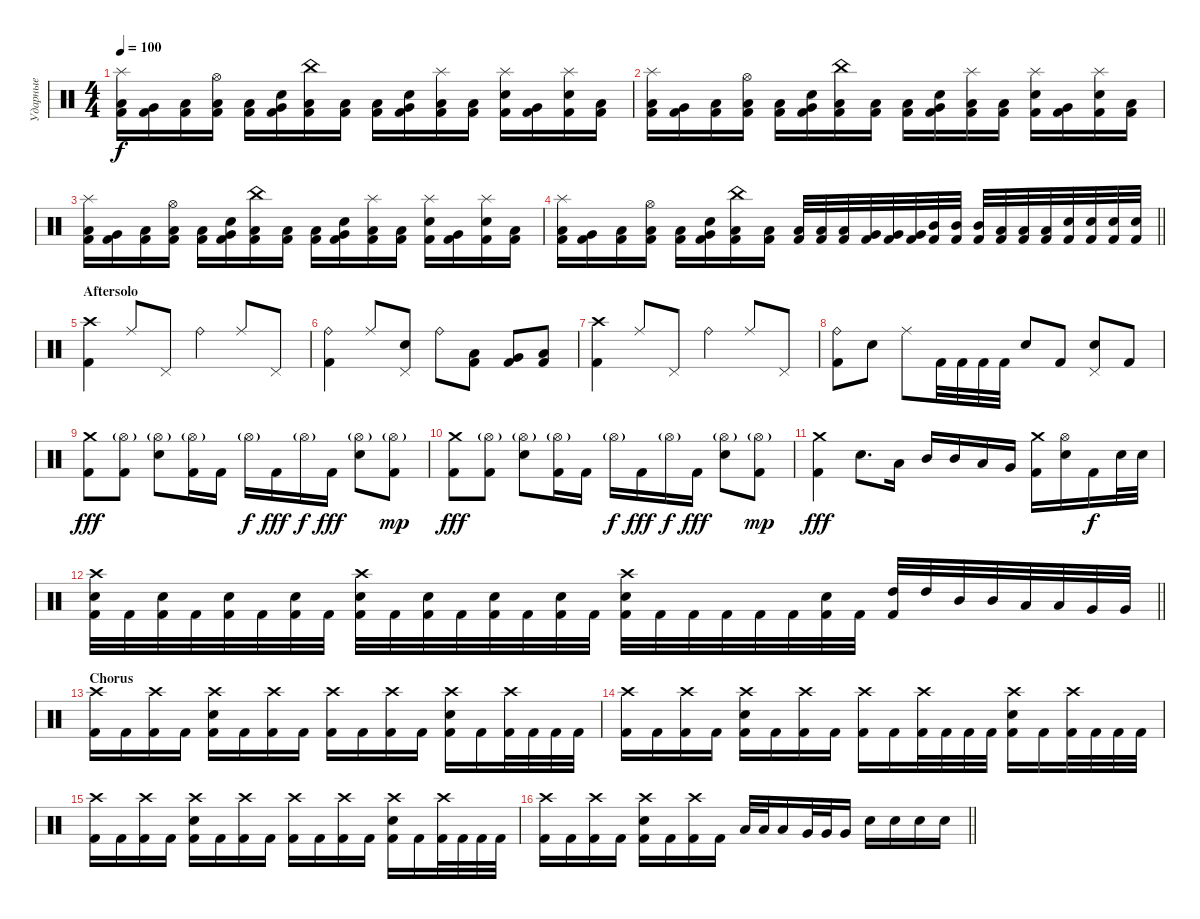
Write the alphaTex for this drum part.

\track ("Ударные" "Ударные") {instrument percussion}
\staff {score}
\articulation defaults
\ts (4 4)
\tempo 100
\clef neutral
\ks c
("Splash (hit)" "Low Tom (hit)" "Kick (hit) 2").16{dy f} ("Very Low Tom (hit)" "Kick (hit) 2").16 ("Low Floor Tom (hit)" "Kick (hit) 2").16 ("Hi-Hat (open)" "Low Floor Tom (hit)" "Kick (hit) 2").16 ("Low Tom (hit)" "Kick (hit) 2").16 ("Electric Snare (hit)" "Very Low Tom (hit)" "Kick (hit) 2").16 ("China (hit)" "Low Floor Tom (hit)" "Kick (hit) 2").16 ("Low Floor Tom (hit)" "Kick (hit) 2").16 ("Low Tom (hit)" "Kick (hit) 2").16 ("Electric Snare (hit)" "Very Low Tom (hit)" "Kick (hit) 2").16 ("Splash (hit)" "Low Floor Tom (hit)" "Kick (hit) 2").16 ("Low Floor Tom (hit)" "Kick (hit) 2").16 ("Splash (hit)" "Electric Snare (hit)" "Kick (hit) 2").16 ("Very Low Tom (hit)" "Kick (hit) 2").16 ("Splash (hit)" "Electric Snare (hit)" "Kick (hit) 2").16 ("Low Floor Tom (hit)" "Kick (hit) 2").16 |
("Splash (hit)" "Low Tom (hit)" "Kick (hit) 2").16 ("Very Low Tom (hit)" "Kick (hit) 2").16 ("Low Floor Tom (hit)" "Kick (hit) 2").16 ("Hi-Hat (open)" "Low Floor Tom (hit)" "Kick (hit) 2").16 ("Low Tom (hit)" "Kick (hit) 2").16 ("Electric Snare (hit)" "Very Low Tom (hit)" "Kick (hit) 2").16 ("China (hit)" "Low Floor Tom (hit)" "Kick (hit) 2").16 ("Low Floor Tom (hit)" "Kick (hit) 2").16 ("Low Tom (hit)" "Kick (hit) 2").16 ("Electric Snare (hit)" "Very Low Tom (hit)" "Kick (hit) 2").16 ("Splash (hit)" "Low Floor Tom (hit)" "Kick (hit) 2").16 ("Low Floor Tom (hit)" "Kick (hit) 2").16 ("Splash (hit)" "Electric Snare (hit)" "Kick (hit) 2").16 ("Very Low Tom (hit)" "Kick (hit) 2").16 ("Splash (hit)" "Electric Snare (hit)" "Kick (hit) 2").16 ("Low Floor Tom (hit)" "Kick (hit) 2").16 |
("Splash (hit)" "Low Tom (hit)" "Kick (hit) 2").16 ("Very Low Tom (hit)" "Kick (hit) 2").16 ("Low Floor Tom (hit)" "Kick (hit) 2").16 ("Hi-Hat (open)" "Low Floor Tom (hit)" "Kick (hit) 2").16 ("Low Tom (hit)" "Kick (hit) 2").16 ("Electric Snare (hit)" "Very Low Tom (hit)" "Kick (hit) 2").16 ("China (hit)" "Low Floor Tom (hit)" "Kick (hit) 2").16 ("Low Floor Tom (hit)" "Kick (hit) 2").16 ("Low Tom (hit)" "Kick (hit) 2").16 ("Electric Snare (hit)" "Very Low Tom (hit)" "Kick (hit) 2").16 ("Splash (hit)" "Low Floor Tom (hit)" "Kick (hit) 2").16 ("Low Floor Tom (hit)" "Kick (hit) 2").16 ("Splash (hit)" "Electric Snare (hit)" "Kick (hit) 2").16 ("Very Low Tom (hit)" "Kick (hit) 2").16 ("Splash (hit)" "Electric Snare (hit)" "Kick (hit) 2").16 ("Low Floor Tom (hit)" "Kick (hit) 2").16 |
\barLineRight lightlight
("Splash (hit)" "Low Tom (hit)" "Kick (hit) 2").16 ("Very Low Tom (hit)" "Kick (hit) 2").16 ("Low Floor Tom (hit)" "Kick (hit) 2").16 ("Hi-Hat (open)" "Low Floor Tom (hit)" "Kick (hit) 2").16 ("Low Tom (hit)" "Kick (hit) 2").16 ("Electric Snare (hit)" "Very Low Tom (hit)" "Kick (hit) 2").16 ("China (hit)" "Low Floor Tom (hit)" "Kick (hit) 2").16 ("Low Floor Tom (hit)" "Kick (hit) 2").16 ("Low Tom (hit)" "Kick (hit) 2").32 ("Low Tom (hit)" "Kick (hit) 2").32 ("Low Tom (hit)" "Kick (hit) 2").32 ("Very Low Tom (hit)" "Kick (hit) 2").32 ("Very Low Tom (hit)" "Kick (hit) 2").32 ("Very Low Tom (hit)" "Kick (hit) 2").32 ("Mid Tom (hit)" "Kick (hit) 2").32 ("Mid Tom (hit)" "Kick (hit) 2").32 ("Mid Tom (hit)" "Kick (hit) 2").32 ("Low Tom (hit)" "Kick (hit) 2").32 ("Low Tom (hit)" "Kick (hit) 2").32 ("Low Tom (hit)" "Kick (hit) 2").32 ("Electric Snare (hit)" "Kick (hit) 2").32 ("Electric Snare (hit)" "Kick (hit) 2").32 ("Electric Snare (hit)" "Kick (hit) 2").32 ("Electric Snare (hit)" "Kick (hit) 2").32 |
\section ("" "Aftersolo")
("Crash high (hit)" "Kick (hit) 2").4 "Ride (middle)".8 "Pedal Hi-Hat (hit)".8 "Ride (bell)".4 "Ride (middle)".8 "Pedal Hi-Hat (hit)".8 |
("Ride (bell)" "Kick (hit) 2").4 "Ride (middle)".8 ("Pedal Hi-Hat (hit)" "Snare (hit) 2").8 "Ride (bell)".8 ("Low Tom (hit)" "Kick (hit) 2").8 ("Very Low Tom (hit)" "Kick (hit) 2").8 ("Low Floor Tom (hit)" "Kick (hit) 2").8 |
("Crash high (hit)" "Kick (hit) 2").4 "Ride (middle)".8 "Pedal Hi-Hat (hit)".8 "Ride (bell)".4 "Ride (middle)".8 "Pedal Hi-Hat (hit)".8 |
("Ride (bell)" "Kick (hit) 2").8 "Snare (hit) 2".8 "Ride (middle)".8 "Kick (hit) 2".32 "Kick (hit) 2".32 "Kick (hit) 2".32 "Kick (hit) 2".32 "Snare (hit) 2".8 "Kick (hit) 2".8 ("Pedal Hi-Hat (hit)" "Snare (hit) 2").8 "Kick (hit) 2".8 |
("Crash medium (hit)" "Kick (hit) 2").8{dy fff} ("Hi-Hat (open)"{g} "Kick (hit) 2").8 ("Hi-Hat (open)"{g} "Electric Snare (hit)").8 ("Hi-Hat (open)"{g} "Kick (hit) 2").16 "Kick (hit) 2".16 "Hi-Hat (open)"{g}.16{dy f} "Kick (hit) 2".16{dy fff} "Hi-Hat (open)"{g}.16{dy f} "Kick (hit) 2".16{dy fff} ("Hi-Hat (open)"{g} "Electric Snare (hit)").8 ("Hi-Hat (open)"{g} "Kick (hit) 2").8{dy mp} |
("Crash medium (hit)" "Kick (hit) 2").8{dy fff} ("Hi-Hat (open)"{g} "Kick (hit) 2").8 ("Hi-Hat (open)"{g} "Electric Snare (hit)").8 ("Hi-Hat (open)"{g} "Kick (hit) 2").16 "Kick (hit) 2".16 "Hi-Hat (open)"{g}.16{dy f} "Kick (hit) 2".16{dy fff} "Hi-Hat (open)"{g}.16{dy f} "Kick (hit) 2".16{dy fff} ("Hi-Hat (open)"{g} "Electric Snare (hit)").8 ("Hi-Hat (open)"{g} "Kick (hit) 2").8{dy mp} |
("Crash medium (hit)" "Kick (hit) 2").4{dy fff} "Electric Snare (hit)".8{d} "Low Tom (hit)".16 "Mid Tom (hit)".16 "Mid Tom (hit)".16 "Low Tom (hit)".16 "Very Low Tom (hit)".16 ("Crash medium (hit)" "Kick (hit) 2").16 ("Hi-Hat (open)" "Electric Snare (hit)").16 "Kick (hit) 2".16{dy f} "Electric Snare (hit)".32 "Electric Snare (hit)".32 |
\barLineRight lightlight
("Crash high (hit)" "Electric Snare (hit)" "Kick (hit) 2").32 "Kick (hit) 2".32 ("Electric Snare (hit)" "Kick (hit) 2").32 "Kick (hit) 2".32 ("Electric Snare (hit)" "Kick (hit) 2").32 "Kick (hit) 2".32 ("Electric Snare (hit)" "Kick (hit) 2").32 "Kick (hit) 2".32 ("Crash high (hit)" "Electric Snare (hit)" "Kick (hit) 2").32 "Kick (hit) 2".32 ("Electric Snare (hit)" "Kick (hit) 2").32 "Kick (hit) 2".32 ("Electric Snare (hit)" "Kick (hit) 2").32 "Kick (hit) 2".32 ("Electric Snare (hit)" "Kick (hit) 2").32 "Kick (hit) 2".32 ("Crash high (hit)" "Electric Snare (hit)" "Kick (hit) 2").32 "Kick (hit) 2".32 "Kick (hit) 2".32 "Kick (hit) 2".32 "Kick (hit) 2".32 "Kick (hit) 2".32 ("Electric Snare (hit)" "Kick (hit) 2").32 "Kick (hit) 2".32 ("High Tom (hit)" "Kick (hit) 2").32 "High Tom (hit)".32 "Mid Tom (hit)".32 "Mid Tom (hit)".32 "Low Tom (hit)".32 "Low Tom (hit)".32 "Very Low Tom (hit)".32 "Very Low Tom (hit)".32 |
\section ("" "Chorus")
("Crash high (hit)" "Kick (hit) 2").16 "Kick (hit) 2".16 ("Crash high (hit)" "Kick (hit) 2").16 "Kick (hit) 2".16 ("Crash high (hit)" "Electric Snare (hit)" "Kick (hit) 2").16 "Kick (hit) 2".16 ("Crash high (hit)" "Kick (hit) 2").16 "Kick (hit) 2".16 ("Crash high (hit)" "Kick (hit) 2").16 "Kick (hit) 2".16 ("Crash high (hit)" "Kick (hit) 2").16 "Kick (hit) 2".16 ("Crash high (hit)" "Electric Snare (hit)" "Kick (hit) 2").16 "Kick (hit) 2".16 ("Crash high (hit)" "Kick (hit) 2").32 "Kick (hit) 2".32 "Kick (hit) 2".32 "Kick (hit) 2".32 |
("Crash high (hit)" "Kick (hit) 2").16 "Kick (hit) 2".16 ("Crash high (hit)" "Kick (hit) 2").16 "Kick (hit) 2".16 ("Crash high (hit)" "Electric Snare (hit)" "Kick (hit) 2").16 "Kick (hit) 2".16 ("Crash high (hit)" "Kick (hit) 2").16 "Kick (hit) 2".16 ("Crash high (hit)" "Kick (hit) 2").16 "Kick (hit) 2".16 ("Crash high (hit)" "Kick (hit) 2").32 "Kick (hit) 2".32 "Kick (hit) 2".32 "Kick (hit) 2".32 ("Crash high (hit)" "Electric Snare (hit)" "Kick (hit) 2").16 "Kick (hit) 2".16 ("Crash high (hit)" "Kick (hit) 2").32 "Kick (hit) 2".32 "Kick (hit) 2".32 "Kick (hit) 2".32 |
("Crash high (hit)" "Kick (hit) 2").16 "Kick (hit) 2".16 ("Crash high (hit)" "Kick (hit) 2").16 "Kick (hit) 2".16 ("Crash high (hit)" "Electric Snare (hit)" "Kick (hit) 2").16 "Kick (hit) 2".16 ("Crash high (hit)" "Kick (hit) 2").16 "Kick (hit) 2".16 ("Crash high (hit)" "Kick (hit) 2").16 "Kick (hit) 2".16 ("Crash high (hit)" "Kick (hit) 2").16 "Kick (hit) 2".16 ("Crash high (hit)" "Electric Snare (hit)" "Kick (hit) 2").16 "Kick (hit) 2".16 ("Crash high (hit)" "Kick (hit) 2").32 "Kick (hit) 2".32 "Kick (hit) 2".32 "Kick (hit) 2".32 |
\barLineRight lightlight
("Crash high (hit)" "Kick (hit) 2").16 "Kick (hit) 2".16 ("Crash high (hit)" "Kick (hit) 2").16 "Kick (hit) 2".16 ("Crash high (hit)" "Electric Snare (hit)" "Kick (hit) 2").16 "Kick (hit) 2".16 ("Crash high (hit)" "Kick (hit) 2").16 "Kick (hit) 2".16 "Low Tom (hit)".32 "Low Tom (hit)".32 "Low Tom (hit)".16 "Very Low Tom (hit)".32 "Very Low Tom (hit)".32 "Very Low Tom (hit)".16 "Electric Snare (hit)".16 "Electric Snare (hit)".16 "Electric Snare (hit)".16 "Electric Snare (hit)".16
